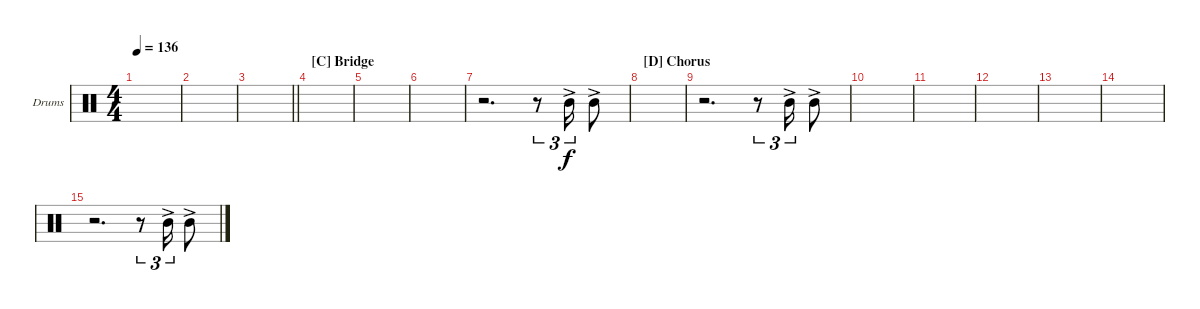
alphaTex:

\bracketExtendMode groupsimilarinstruments
\firstSystemTrackNameOrientation horizontal
\otherSystemsTrackNameOrientation horizontal
\track ("Drumkit" "Drums") {instrument percussion}
\staff {score}
\articulation defaults
\ts (4 4)
\tempo 136
\clef neutral
\scale
0.333333
\ks c
|
\scale
0.333333 |
\scale
0.333333
\barLineRight lightlight
|
\section ("C" "Bridge")
\scale
0.333333 |
\scale
0.333333 |
\scale
0.333333 |
\scale
0.333333 r.2{d} r.8{tu (3 2)} "Mid Tom (hit)"{ac}.16{tu (3 2)} "Mid Tom (hit)"{ac}.8 |
\section ("D" "Chorus")
\scale
0.333333 |
\scale
0.333333 r.2{d} r.8{tu (3 2)} "Mid Tom (hit)"{ac}.16{tu (3 2)} "Mid Tom (hit)"{ac}.8 |
\scale
0.333333 |
\scale
0.333333 |
\scale
0.333333 |
\scale
0.333333 |
\scale
0.333333 |
\scale
0.333333 r.2{d} r.8{tu (3 2)} "Mid Tom (hit)"{ac}.16{tu (3 2)} "Mid Tom (hit)"{ac}.8 |
\scale
0.333333
